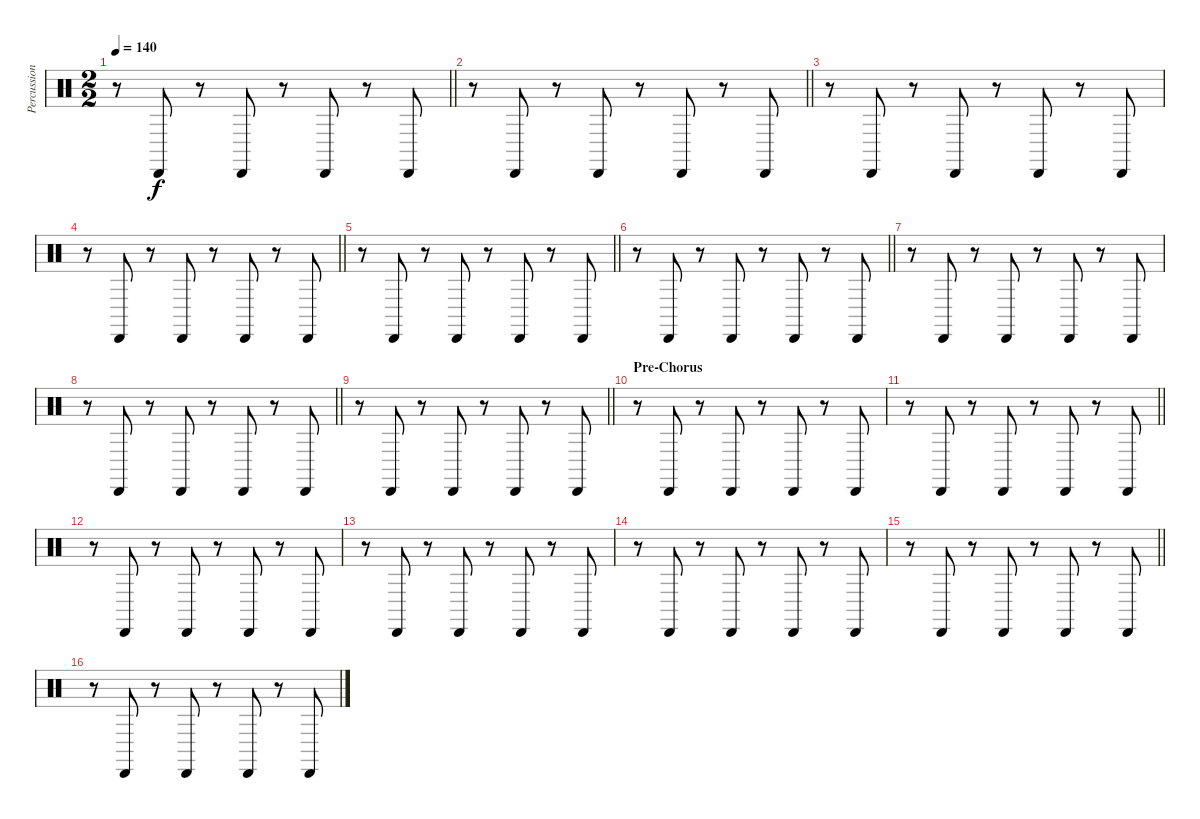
\track ("Percussion 2" "Percussion") {instrument percussion}
\staff {score}
\articulation defaults
\ts (2 2)
\tempo 140
\clef neutral
\barLineRight lightlight
\ks c
r.8{dy f} "Cabasa (hit)".8 r.8 "Cabasa (hit)".8 r.8 "Cabasa (hit)".8 r.8 "Cabasa (hit)".8 |
\barLineRight lightlight
r.8 "Cabasa (hit)".8 r.8 "Cabasa (hit)".8 r.8 "Cabasa (hit)".8 r.8 "Cabasa (hit)".8 |
r.8 "Cabasa (hit)".8 r.8 "Cabasa (hit)".8 r.8 "Cabasa (hit)".8 r.8 "Cabasa (hit)".8 |
\barLineRight lightlight
r.8 "Cabasa (hit)".8 r.8 "Cabasa (hit)".8 r.8 "Cabasa (hit)".8 r.8 "Cabasa (hit)".8 |
\barLineRight lightlight
r.8 "Cabasa (hit)".8 r.8 "Cabasa (hit)".8 r.8 "Cabasa (hit)".8 r.8 "Cabasa (hit)".8 |
\barLineRight lightlight
r.8 "Cabasa (hit)".8 r.8 "Cabasa (hit)".8 r.8 "Cabasa (hit)".8 r.8 "Cabasa (hit)".8 |
r.8 "Cabasa (hit)".8 r.8 "Cabasa (hit)".8 r.8 "Cabasa (hit)".8 r.8 "Cabasa (hit)".8 |
\barLineRight lightlight
r.8 "Cabasa (hit)".8 r.8 "Cabasa (hit)".8 r.8 "Cabasa (hit)".8 r.8 "Cabasa (hit)".8 |
\barLineRight lightlight
r.8 "Cabasa (hit)".8 r.8 "Cabasa (hit)".8 r.8 "Cabasa (hit)".8 r.8 "Cabasa (hit)".8 |
\section ("" "Pre-Chorus")
r.8 "Cabasa (hit)".8 r.8 "Cabasa (hit)".8 r.8 "Cabasa (hit)".8 r.8 "Cabasa (hit)".8 |
\barLineRight lightlight
r.8 "Cabasa (hit)".8 r.8 "Cabasa (hit)".8 r.8 "Cabasa (hit)".8 r.8 "Cabasa (hit)".8 |
r.8 "Cabasa (hit)".8 r.8 "Cabasa (hit)".8 r.8 "Cabasa (hit)".8 r.8 "Cabasa (hit)".8 |
r.8 "Cabasa (hit)".8 r.8 "Cabasa (hit)".8 r.8 "Cabasa (hit)".8 r.8 "Cabasa (hit)".8 |
r.8 "Cabasa (hit)".8 r.8 "Cabasa (hit)".8 r.8 "Cabasa (hit)".8 r.8 "Cabasa (hit)".8 |
\barLineRight lightlight
r.8 "Cabasa (hit)".8 r.8 "Cabasa (hit)".8 r.8 "Cabasa (hit)".8 r.8 "Cabasa (hit)".8 |
r.8 "Cabasa (hit)".8 r.8 "Cabasa (hit)".8 r.8 "Cabasa (hit)".8 r.8 "Cabasa (hit)".8
